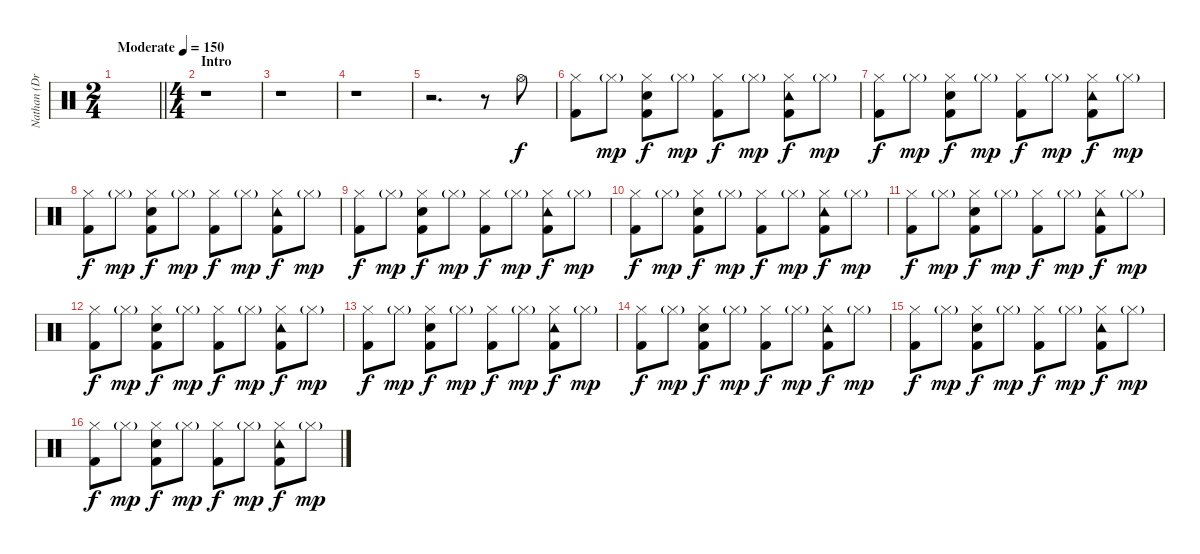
\track ("Nathan (Drums)" "Nathan (Dr") {instrument percussion}
\staff {score}
\articulation defaults
\ts (2 4)
\tempo (150 "Moderate")
\clef neutral
\barLineRight lightlight
\ks c
|
\ts (4 4)
\section ("" "Intro")
r.1 |
r.1 |
r.1 |
r.2{d} r.8 "Hi-Hat (open)".8 |
("Hi-Hat (closed)" "Kick (hit) 2").8 "Hi-Hat (closed)"{g}.8{dy mp} ("Hi-Hat (closed)" "Electric Snare (hit)" "Kick (hit) 2").8{dy f} "Hi-Hat (closed)"{g}.8{dy mp} ("Hi-Hat (closed)" "Kick (hit) 2").8{dy f} "Hi-Hat (closed)"{g}.8{dy mp} ("Hi-Hat (closed)" "Tambourine (hit)" "Kick (hit) 2").8{dy f} "Hi-Hat (closed)"{g}.8{dy mp} |
("Hi-Hat (closed)" "Kick (hit) 2").8{dy f} "Hi-Hat (closed)"{g}.8{dy mp} ("Hi-Hat (closed)" "Electric Snare (hit)" "Kick (hit) 2").8{dy f} "Hi-Hat (closed)"{g}.8{dy mp} ("Hi-Hat (closed)" "Kick (hit) 2").8{dy f} "Hi-Hat (closed)"{g}.8{dy mp} ("Hi-Hat (closed)" "Tambourine (hit)" "Kick (hit) 2").8{dy f} "Hi-Hat (closed)"{g}.8{dy mp} |
("Hi-Hat (closed)" "Kick (hit) 2").8{dy f} "Hi-Hat (closed)"{g}.8{dy mp} ("Hi-Hat (closed)" "Electric Snare (hit)" "Kick (hit) 2").8{dy f} "Hi-Hat (closed)"{g}.8{dy mp} ("Hi-Hat (closed)" "Kick (hit) 2").8{dy f} "Hi-Hat (closed)"{g}.8{dy mp} ("Hi-Hat (closed)" "Tambourine (hit)" "Kick (hit) 2").8{dy f} "Hi-Hat (closed)"{g}.8{dy mp} |
("Hi-Hat (closed)" "Kick (hit) 2").8{dy f} "Hi-Hat (closed)"{g}.8{dy mp} ("Hi-Hat (closed)" "Electric Snare (hit)" "Kick (hit) 2").8{dy f} "Hi-Hat (closed)"{g}.8{dy mp} ("Hi-Hat (closed)" "Kick (hit) 2").8{dy f} "Hi-Hat (closed)"{g}.8{dy mp} ("Hi-Hat (closed)" "Tambourine (hit)" "Kick (hit) 2").8{dy f} "Hi-Hat (closed)"{g}.8{dy mp} |
("Hi-Hat (closed)" "Kick (hit) 2").8{dy f} "Hi-Hat (closed)"{g}.8{dy mp} ("Hi-Hat (closed)" "Electric Snare (hit)" "Kick (hit) 2").8{dy f} "Hi-Hat (closed)"{g}.8{dy mp} ("Hi-Hat (closed)" "Kick (hit) 2").8{dy f} "Hi-Hat (closed)"{g}.8{dy mp} ("Hi-Hat (closed)" "Tambourine (hit)" "Kick (hit) 2").8{dy f} "Hi-Hat (closed)"{g}.8{dy mp} |
("Hi-Hat (closed)" "Kick (hit) 2").8{dy f} "Hi-Hat (closed)"{g}.8{dy mp} ("Hi-Hat (closed)" "Electric Snare (hit)" "Kick (hit) 2").8{dy f} "Hi-Hat (closed)"{g}.8{dy mp} ("Hi-Hat (closed)" "Kick (hit) 2").8{dy f} "Hi-Hat (closed)"{g}.8{dy mp} ("Hi-Hat (closed)" "Tambourine (hit)" "Kick (hit) 2").8{dy f} "Hi-Hat (closed)"{g}.8{dy mp} |
("Hi-Hat (closed)" "Kick (hit) 2").8{dy f} "Hi-Hat (closed)"{g}.8{dy mp} ("Hi-Hat (closed)" "Electric Snare (hit)" "Kick (hit) 2").8{dy f} "Hi-Hat (closed)"{g}.8{dy mp} ("Hi-Hat (closed)" "Kick (hit) 2").8{dy f} "Hi-Hat (closed)"{g}.8{dy mp} ("Hi-Hat (closed)" "Tambourine (hit)" "Kick (hit) 2").8{dy f} "Hi-Hat (closed)"{g}.8{dy mp} |
("Hi-Hat (closed)" "Kick (hit) 2").8{dy f} "Hi-Hat (closed)"{g}.8{dy mp} ("Hi-Hat (closed)" "Electric Snare (hit)" "Kick (hit) 2").8{dy f} "Hi-Hat (closed)"{g}.8{dy mp} ("Hi-Hat (closed)" "Kick (hit) 2").8{dy f} "Hi-Hat (closed)"{g}.8{dy mp} ("Hi-Hat (closed)" "Tambourine (hit)" "Kick (hit) 2").8{dy f} "Hi-Hat (closed)"{g}.8{dy mp} |
("Hi-Hat (closed)" "Kick (hit) 2").8{dy f} "Hi-Hat (closed)"{g}.8{dy mp} ("Hi-Hat (closed)" "Electric Snare (hit)" "Kick (hit) 2").8{dy f} "Hi-Hat (closed)"{g}.8{dy mp} ("Hi-Hat (closed)" "Kick (hit) 2").8{dy f} "Hi-Hat (closed)"{g}.8{dy mp} ("Hi-Hat (closed)" "Tambourine (hit)" "Kick (hit) 2").8{dy f} "Hi-Hat (closed)"{g}.8{dy mp} |
("Hi-Hat (closed)" "Kick (hit) 2").8{dy f} "Hi-Hat (closed)"{g}.8{dy mp} ("Hi-Hat (closed)" "Electric Snare (hit)" "Kick (hit) 2").8{dy f} "Hi-Hat (closed)"{g}.8{dy mp} ("Hi-Hat (closed)" "Kick (hit) 2").8{dy f} "Hi-Hat (closed)"{g}.8{dy mp} ("Hi-Hat (closed)" "Tambourine (hit)" "Kick (hit) 2").8{dy f} "Hi-Hat (closed)"{g}.8{dy mp} |
("Hi-Hat (closed)" "Kick (hit) 2").8{dy f} "Hi-Hat (closed)"{g}.8{dy mp} ("Hi-Hat (closed)" "Electric Snare (hit)" "Kick (hit) 2").8{dy f} "Hi-Hat (closed)"{g}.8{dy mp} ("Hi-Hat (closed)" "Kick (hit) 2").8{dy f} "Hi-Hat (closed)"{g}.8{dy mp} ("Hi-Hat (closed)" "Tambourine (hit)" "Kick (hit) 2").8{dy f} "Hi-Hat (closed)"{g}.8{dy mp}
